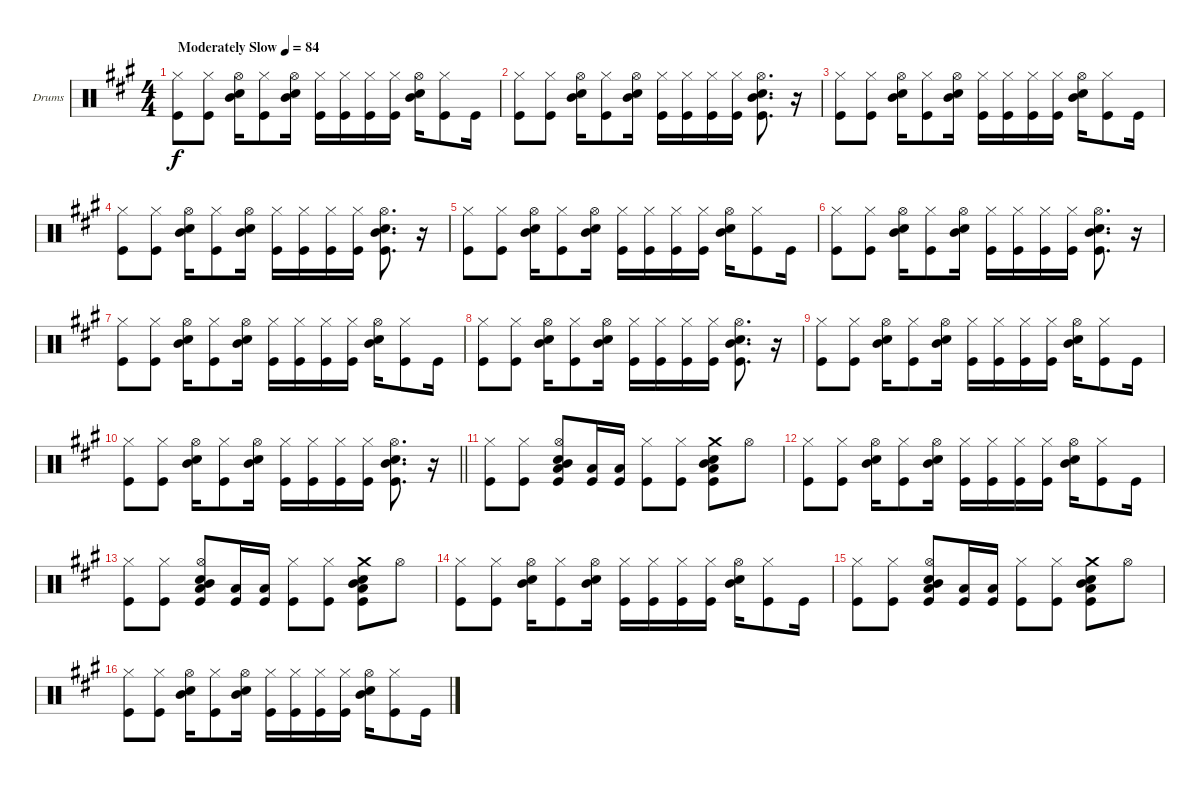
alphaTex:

\defaultSystemsLayout 4
\bracketExtendMode groupsimilarinstruments
\firstSystemTrackNameOrientation horizontal
\otherSystemsTrackNameOrientation horizontal
\track ("Drumkit" "Drums") {instrument percussion}
\staff {score}
\articulation defaults
\ts (4 4)
\tempo (84 "Moderately Slow")
\clef neutral
\ks a
("Kick (hit)" "Hi-Hat (closed)").8{dy f} ("Kick (hit)" "Hi-Hat (closed)").8 ("Snare (hit) 2" "Mid Tom (hit)" "Hi-Hat (open)").16 ("Kick (hit)" "Hi-Hat (closed)").8 ("Snare (hit) 2" "Mid Tom (hit)" "Hi-Hat (open)").16 ("Kick (hit)" "Hi-Hat (closed)").16 ("Kick (hit)" "Hi-Hat (closed)").16 ("Kick (hit)" "Hi-Hat (closed)").16 ("Kick (hit)" "Hi-Hat (closed)").16 ("Snare (hit) 2" "Mid Tom (hit)" "Hi-Hat (open)").16 ("Kick (hit)" "Hi-Hat (closed)").8 "Kick (hit)".16 |
("Kick (hit)" "Hi-Hat (closed)").8 ("Kick (hit)" "Hi-Hat (closed)").8 ("Snare (hit) 2" "Mid Tom (hit)" "Hi-Hat (open)").16 ("Kick (hit)" "Hi-Hat (closed)").8 ("Snare (hit) 2" "Mid Tom (hit)" "Hi-Hat (open)").16 ("Kick (hit)" "Hi-Hat (closed)").16 ("Kick (hit)" "Hi-Hat (closed)").16 ("Kick (hit)" "Hi-Hat (closed)").16 ("Kick (hit)" "Hi-Hat (closed)").16 ("Snare (hit) 2" "Mid Tom (hit)" "Hi-Hat (open)" "Kick (hit)").8{d} r.16 |
("Kick (hit)" "Hi-Hat (closed)").8 ("Kick (hit)" "Hi-Hat (closed)").8 ("Snare (hit) 2" "Mid Tom (hit)" "Hi-Hat (open)").16 ("Kick (hit)" "Hi-Hat (closed)").8 ("Snare (hit) 2" "Mid Tom (hit)" "Hi-Hat (open)").16 ("Kick (hit)" "Hi-Hat (closed)").16 ("Kick (hit)" "Hi-Hat (closed)").16 ("Kick (hit)" "Hi-Hat (closed)").16 ("Kick (hit)" "Hi-Hat (closed)").16 ("Snare (hit) 2" "Mid Tom (hit)" "Hi-Hat (open)").16 ("Kick (hit)" "Hi-Hat (closed)").8 "Kick (hit)".16 |
("Kick (hit)" "Hi-Hat (closed)").8 ("Kick (hit)" "Hi-Hat (closed)").8 ("Snare (hit) 2" "Mid Tom (hit)" "Hi-Hat (open)").16 ("Kick (hit)" "Hi-Hat (closed)").8 ("Snare (hit) 2" "Mid Tom (hit)" "Hi-Hat (open)").16 ("Kick (hit)" "Hi-Hat (closed)").16 ("Kick (hit)" "Hi-Hat (closed)").16 ("Kick (hit)" "Hi-Hat (closed)").16 ("Kick (hit)" "Hi-Hat (closed)").16 ("Snare (hit) 2" "Mid Tom (hit)" "Hi-Hat (open)" "Kick (hit)").8{d} r.16 |
("Kick (hit)" "Hi-Hat (closed)").8 ("Kick (hit)" "Hi-Hat (closed)").8 ("Snare (hit) 2" "Mid Tom (hit)" "Hi-Hat (open)").16 ("Kick (hit)" "Hi-Hat (closed)").8 ("Snare (hit) 2" "Mid Tom (hit)" "Hi-Hat (open)").16 ("Kick (hit)" "Hi-Hat (closed)").16 ("Kick (hit)" "Hi-Hat (closed)").16 ("Kick (hit)" "Hi-Hat (closed)").16 ("Kick (hit)" "Hi-Hat (closed)").16 ("Snare (hit) 2" "Mid Tom (hit)" "Hi-Hat (open)").16 ("Kick (hit)" "Hi-Hat (closed)").8 "Kick (hit)".16 |
("Kick (hit)" "Hi-Hat (closed)").8 ("Kick (hit)" "Hi-Hat (closed)").8 ("Snare (hit) 2" "Mid Tom (hit)" "Hi-Hat (open)").16 ("Kick (hit)" "Hi-Hat (closed)").8 ("Snare (hit) 2" "Mid Tom (hit)" "Hi-Hat (open)").16 ("Kick (hit)" "Hi-Hat (closed)").16 ("Kick (hit)" "Hi-Hat (closed)").16 ("Kick (hit)" "Hi-Hat (closed)").16 ("Kick (hit)" "Hi-Hat (closed)").16 ("Snare (hit) 2" "Mid Tom (hit)" "Hi-Hat (open)" "Kick (hit)").8{d} r.16 |
("Kick (hit)" "Hi-Hat (closed)").8 ("Kick (hit)" "Hi-Hat (closed)").8 ("Snare (hit) 2" "Mid Tom (hit)" "Hi-Hat (open)").16 ("Kick (hit)" "Hi-Hat (closed)").8 ("Snare (hit) 2" "Mid Tom (hit)" "Hi-Hat (open)").16 ("Kick (hit)" "Hi-Hat (closed)").16 ("Kick (hit)" "Hi-Hat (closed)").16 ("Kick (hit)" "Hi-Hat (closed)").16 ("Kick (hit)" "Hi-Hat (closed)").16 ("Snare (hit) 2" "Mid Tom (hit)" "Hi-Hat (open)").16 ("Kick (hit)" "Hi-Hat (closed)").8 "Kick (hit)".16 |
("Kick (hit)" "Hi-Hat (closed)").8 ("Kick (hit)" "Hi-Hat (closed)").8 ("Snare (hit) 2" "Mid Tom (hit)" "Hi-Hat (open)").16 ("Kick (hit)" "Hi-Hat (closed)").8 ("Snare (hit) 2" "Mid Tom (hit)" "Hi-Hat (open)").16 ("Kick (hit)" "Hi-Hat (closed)").16 ("Kick (hit)" "Hi-Hat (closed)").16 ("Kick (hit)" "Hi-Hat (closed)").16 ("Kick (hit)" "Hi-Hat (closed)").16 ("Snare (hit) 2" "Mid Tom (hit)" "Hi-Hat (open)" "Kick (hit)").8{d} r.16 |
("Kick (hit)" "Hi-Hat (closed)").8 ("Kick (hit)" "Hi-Hat (closed)").8 ("Snare (hit) 2" "Mid Tom (hit)" "Hi-Hat (open)").16 ("Kick (hit)" "Hi-Hat (closed)").8 ("Snare (hit) 2" "Mid Tom (hit)" "Hi-Hat (open)").16 ("Kick (hit)" "Hi-Hat (closed)").16 ("Kick (hit)" "Hi-Hat (closed)").16 ("Kick (hit)" "Hi-Hat (closed)").16 ("Kick (hit)" "Hi-Hat (closed)").16 ("Snare (hit) 2" "Mid Tom (hit)" "Hi-Hat (open)").16 ("Kick (hit)" "Hi-Hat (closed)").8 "Kick (hit)".16 |
\barLineRight lightlight
("Kick (hit)" "Hi-Hat (closed)").8 ("Kick (hit)" "Hi-Hat (closed)").8 ("Snare (hit) 2" "Mid Tom (hit)" "Hi-Hat (open)").16 ("Kick (hit)" "Hi-Hat (closed)").8 ("Snare (hit) 2" "Mid Tom (hit)" "Hi-Hat (open)").16 ("Kick (hit)" "Hi-Hat (closed)").16 ("Kick (hit)" "Hi-Hat (closed)").16 ("Kick (hit)" "Hi-Hat (closed)").16 ("Kick (hit)" "Hi-Hat (closed)").16 ("Snare (hit) 2" "Mid Tom (hit)" "Hi-Hat (open)" "Kick (hit)").8{d} r.16 |
\scale
0.686869 ("Hi-Hat (closed)" "Kick (hit)").8 ("Hi-Hat (closed)" "Kick (hit)").8 ("Snare (hit) 2" "Mid Tom (hit)" "Hi-Hat (open)" "Low Tom (hit)" "Kick (hit)").8 ("Low Tom (hit)" "Kick (hit)").16 ("Low Tom (hit)" "Kick (hit)").16 ("Hi-Hat (closed)" "Kick (hit)").8 ("Hi-Hat (closed)" "Kick (hit)").8 ("Snare (hit) 2" "Mid Tom (hit)" "Crash medium (hit)" "Low Tom (hit)" "Kick (hit)").8 "Hi-Hat (open)".8 |
("Kick (hit)" "Hi-Hat (closed)").8 ("Kick (hit)" "Hi-Hat (closed)").8 ("Snare (hit) 2" "Mid Tom (hit)" "Hi-Hat (open)").16 ("Kick (hit)" "Hi-Hat (closed)").8 ("Snare (hit) 2" "Mid Tom (hit)" "Hi-Hat (open)").16 ("Kick (hit)" "Hi-Hat (closed)").16 ("Kick (hit)" "Hi-Hat (closed)").16 ("Kick (hit)" "Hi-Hat (closed)").16 ("Kick (hit)" "Hi-Hat (closed)").16 ("Snare (hit) 2" "Mid Tom (hit)" "Hi-Hat (open)").16 ("Kick (hit)" "Hi-Hat (closed)").8 "Kick (hit)".16 |
("Hi-Hat (closed)" "Kick (hit)").8 ("Hi-Hat (closed)" "Kick (hit)").8 ("Snare (hit) 2" "Mid Tom (hit)" "Hi-Hat (open)" "Low Tom (hit)" "Kick (hit)").8 ("Low Tom (hit)" "Kick (hit)").16 ("Low Tom (hit)" "Kick (hit)").16 ("Hi-Hat (closed)" "Kick (hit)").8 ("Hi-Hat (closed)" "Kick (hit)").8 ("Snare (hit) 2" "Mid Tom (hit)" "Crash medium (hit)" "Low Tom (hit)" "Kick (hit)").8 "Hi-Hat (open)".8 |
("Kick (hit)" "Hi-Hat (closed)").8 ("Kick (hit)" "Hi-Hat (closed)").8 ("Snare (hit) 2" "Mid Tom (hit)" "Hi-Hat (open)").16 ("Kick (hit)" "Hi-Hat (closed)").8 ("Snare (hit) 2" "Mid Tom (hit)" "Hi-Hat (open)").16 ("Kick (hit)" "Hi-Hat (closed)").16 ("Kick (hit)" "Hi-Hat (closed)").16 ("Kick (hit)" "Hi-Hat (closed)").16 ("Kick (hit)" "Hi-Hat (closed)").16 ("Snare (hit) 2" "Mid Tom (hit)" "Hi-Hat (open)").16 ("Kick (hit)" "Hi-Hat (closed)").8 "Kick (hit)".16 |
("Hi-Hat (closed)" "Kick (hit)").8 ("Hi-Hat (closed)" "Kick (hit)").8 ("Snare (hit) 2" "Mid Tom (hit)" "Hi-Hat (open)" "Low Tom (hit)" "Kick (hit)").8 ("Low Tom (hit)" "Kick (hit)").16 ("Low Tom (hit)" "Kick (hit)").16 ("Hi-Hat (closed)" "Kick (hit)").8 ("Hi-Hat (closed)" "Kick (hit)").8 ("Snare (hit) 2" "Mid Tom (hit)" "Crash medium (hit)" "Low Tom (hit)" "Kick (hit)").8 "Hi-Hat (open)".8 |
("Kick (hit)" "Hi-Hat (closed)").8 ("Kick (hit)" "Hi-Hat (closed)").8 ("Snare (hit) 2" "Mid Tom (hit)" "Hi-Hat (open)").16 ("Kick (hit)" "Hi-Hat (closed)").8 ("Snare (hit) 2" "Mid Tom (hit)" "Hi-Hat (open)").16 ("Kick (hit)" "Hi-Hat (closed)").16 ("Kick (hit)" "Hi-Hat (closed)").16 ("Kick (hit)" "Hi-Hat (closed)").16 ("Kick (hit)" "Hi-Hat (closed)").16 ("Snare (hit) 2" "Mid Tom (hit)" "Hi-Hat (open)").16 ("Kick (hit)" "Hi-Hat (closed)").8 "Kick (hit)".16
